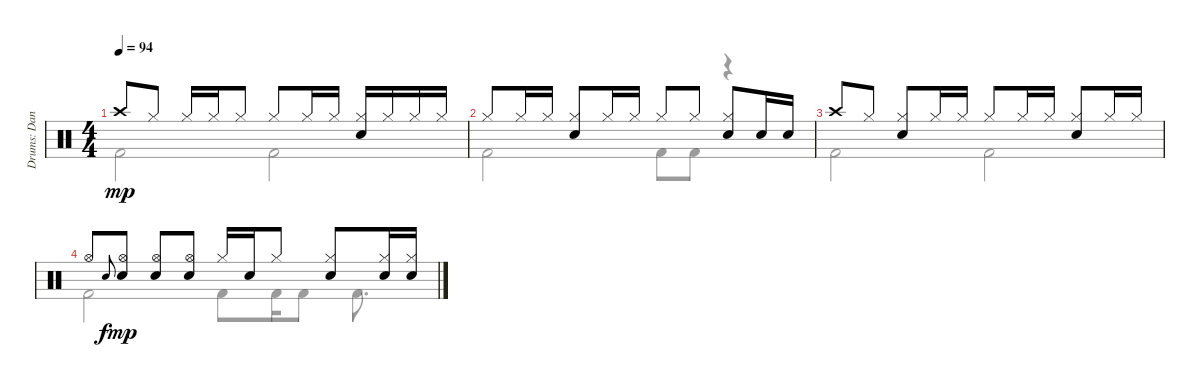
\track ("Drums: Dana" "Drums: Dan") {instrument percussion}
\staff {score}
\articulation defaults
\voice
\ts (4 4)
\tempo 94
\clef neutral
\ks c "Crash high (hit)".8{dy mp volume 0} "Hi-Hat (closed)".8 "Hi-Hat (closed)".16 "Hi-Hat (closed)".16 "Hi-Hat (closed)".8 "Hi-Hat (closed)".8 "Hi-Hat (closed)".16 "Hi-Hat (closed)".16
("Hi-Hat (closed)" "Snare (hit) 2").16 "Hi-Hat (closed)".16 "Hi-Hat (closed)".16 "Hi-Hat (closed)".16 |
"Hi-Hat (closed)".8 "Hi-Hat (closed)".16 "Hi-Hat (closed)".16 ("Hi-Hat (closed)" "Snare (hit) 2").8 "Hi-Hat (closed)".16 "Hi-Hat (closed)".16 "Hi-Hat (closed)".8 "Hi-Hat (closed)".8 ("Hi-Hat (closed)" "Snare (hit) 2").8 "Snare (hit) 2".16 "Snare (hit) 2".16 |
"Crash high (hit)".8 "Hi-Hat (closed)".8 ("Hi-Hat (closed)" "Snare (hit) 2").8 "Hi-Hat (closed)".16 "Hi-Hat (closed)".16 "Hi-Hat (closed)".8 "Hi-Hat (closed)".16 "Hi-Hat (closed)".16 ("Hi-Hat (closed)" "Snare (hit) 2").8 "Hi-Hat (closed)".16 "Hi-Hat (closed)".16 |
"Hi-Hat (open)".8 "Electric Snare (hit)".8{gr onbeat dy f} ("Hi-Hat (open)" "Snare (hit) 2").8{dy mp} ("Hi-Hat (open)" "Snare (hit) 2").8 ("Hi-Hat (open)" "Snare (hit) 2").8 "Hi-Hat (closed)".16 "Snare (hit) 2".16 "Hi-Hat (closed)".8 ("Hi-Hat (closed)" "Snare (hit) 2").8 ("Hi-Hat (closed)" "Snare (hit) 2").16 ("Hi-Hat (closed)" "Snare (hit) 2").16
\voice
\clef neutral
\ottava regular
\simile none
\ks c "Kick (hit) 2".2{dy mp} "Kick (hit) 2".2
|
"Kick (hit) 2".2 "Kick (hit) 2".8 "Kick (hit) 2".8 r.4 |
"Kick (hit) 2".2 "Kick (hit) 2".2 |
"Kick (hit) 2".2 "Kick (hit) 2".8 "Kick (hit) 2".16 "Kick (hit) 2".8 "Kick (hit) 2".8{d}
